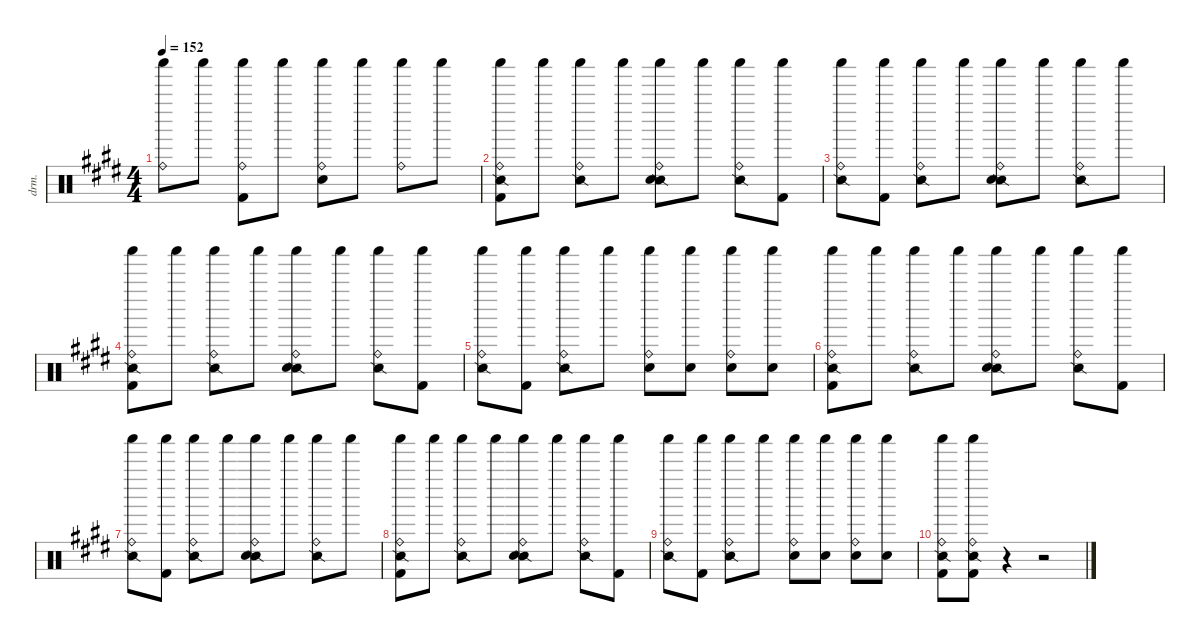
\defaultSystemsLayout 4
\hideDynamics
\bracketExtendMode nobrackets
\otherSystemsTrackNameOrientation horizontal
\track ("Drums" "drm.") {instrument percussion}
\staff {score}
\articulation defaults
\ts (4 4)
\tempo 152
\clef neutral
\ks c#minor
("Ride (bell)"{acc forcenatural} "Shaker (hit)"{acc forcenatural}).8{dy f} "Shaker (hit)"{acc forcenatural}.8 ("Ride (bell)"{acc forcenatural} "Kick (hit) 2"{acc forcenatural} "Shaker (hit)"{acc forcenatural}).8 "Shaker (hit)"{acc forcenatural}.8 ("Ride (bell)"{acc forcenatural} "Snare (hit) 2"{acc forcenatural} "Shaker (hit)"{acc forcenatural}).8 "Shaker (hit)"{acc forcenatural}.8 ("Ride (bell)"{acc forcenatural} "Shaker (hit)"{acc forcenatural}).8 "Shaker (hit)"{acc forcenatural}.8 |
("Snare (side stick) 2"{acc forcenatural} "Ride (bell)"{acc forcenatural} "Kick (hit) 2"{acc forcenatural} "Shaker (hit)"{acc forcenatural}).8 "Shaker (hit)"{acc forcenatural}.8 ("Snare (side stick) 2"{acc forcenatural} "Ride (bell)"{acc forcenatural} "Shaker (hit)"{acc forcenatural}).8 "Shaker (hit)"{acc forcenatural}.8 ("Snare (side stick) 2"{acc forcenatural} "Ride (bell)"{acc forcenatural} "Snare (hit) 2"{acc forcenatural} "Shaker (hit)"{acc forcenatural}).8 "Shaker (hit)"{acc forcenatural}.8 ("Snare (side stick) 2"{acc forcenatural} "Ride (bell)"{acc forcenatural} "Shaker (hit)"{acc forcenatural}).8 ("Kick (hit) 2"{acc forcenatural} "Shaker (hit)"{acc forcenatural}).8 |
("Snare (side stick) 2"{acc forcenatural} "Ride (bell)"{acc forcenatural} "Shaker (hit)"{acc forcenatural}).8 ("Shaker (hit)"{acc forcenatural} "Kick (hit) 2"{acc forcenatural}).8 ("Snare (side stick) 2"{acc forcenatural} "Ride (bell)"{acc forcenatural} "Shaker (hit)"{acc forcenatural}).8 "Shaker (hit)"{acc forcenatural}.8 ("Snare (side stick) 2"{acc forcenatural} "Ride (bell)"{acc forcenatural} "Snare (hit) 2"{acc forcenatural} "Shaker (hit)"{acc forcenatural}).8 "Shaker (hit)"{acc forcenatural}.8 ("Snare (side stick) 2"{acc forcenatural} "Ride (bell)"{acc forcenatural} "Shaker (hit)"{acc forcenatural}).8 "Shaker (hit)"{acc forcenatural}.8 |
("Snare (side stick) 2"{acc forcenatural} "Ride (bell)"{acc forcenatural} "Kick (hit) 2"{acc forcenatural} "Shaker (hit)"{acc forcenatural}).8 "Shaker (hit)"{acc forcenatural}.8 ("Snare (side stick) 2"{acc forcenatural} "Ride (bell)"{acc forcenatural} "Shaker (hit)"{acc forcenatural}).8 "Shaker (hit)"{acc forcenatural}.8 ("Snare (side stick) 2"{acc forcenatural} "Ride (bell)"{acc forcenatural} "Snare (hit) 2"{acc forcenatural} "Shaker (hit)"{acc forcenatural}).8 "Shaker (hit)"{acc forcenatural}.8 ("Snare (side stick) 2"{acc forcenatural} "Ride (bell)"{acc forcenatural} "Shaker (hit)"{acc forcenatural}).8 ("Kick (hit) 2"{acc forcenatural} "Shaker (hit)"{acc forcenatural}).8 |
("Snare (side stick) 2"{acc forcenatural} "Ride (bell)"{acc forcenatural} "Shaker (hit)"{acc forcenatural}).8 ("Shaker (hit)"{acc forcenatural} "Kick (hit) 2"{acc forcenatural}).8 ("Snare (side stick) 2"{acc forcenatural} "Ride (bell)"{acc forcenatural} "Shaker (hit)"{acc forcenatural}).8 "Shaker (hit)"{acc forcenatural}.8 ("Ride (bell)"{acc forcenatural} "Snare (hit) 2"{acc forcenatural} "Shaker (hit)"{acc forcenatural}).8 ("Snare (hit) 2"{acc forcenatural} "Shaker (hit)"{acc forcenatural}).8 ("Snare (hit) 2"{acc forcenatural} "Ride (bell)"{acc forcenatural} "Shaker (hit)"{acc forcenatural}).8 ("Snare (hit) 2"{acc forcenatural} "Shaker (hit)"{acc forcenatural}).8 |
("Snare (side stick) 2"{acc forcenatural} "Ride (bell)"{acc forcenatural} "Kick (hit) 2"{acc forcenatural} "Shaker (hit)"{acc forcenatural}).8 "Shaker (hit)"{acc forcenatural}.8 ("Snare (side stick) 2"{acc forcenatural} "Ride (bell)"{acc forcenatural} "Shaker (hit)"{acc forcenatural}).8 "Shaker (hit)"{acc forcenatural}.8 ("Snare (side stick) 2"{acc forcenatural} "Ride (bell)"{acc forcenatural} "Snare (hit) 2"{acc forcenatural} "Shaker (hit)"{acc forcenatural}).8 "Shaker (hit)"{acc forcenatural}.8 ("Snare (side stick) 2"{acc forcenatural} "Ride (bell)"{acc forcenatural} "Shaker (hit)"{acc forcenatural}).8 ("Kick (hit) 2"{acc forcenatural} "Shaker (hit)"{acc forcenatural}).8 |
("Snare (side stick) 2"{acc forcenatural} "Ride (bell)"{acc forcenatural} "Shaker (hit)"{acc forcenatural}).8 ("Shaker (hit)"{acc forcenatural} "Kick (hit) 2"{acc forcenatural}).8 ("Snare (side stick) 2"{acc forcenatural} "Ride (bell)"{acc forcenatural} "Shaker (hit)"{acc forcenatural}).8 "Shaker (hit)"{acc forcenatural}.8 ("Snare (side stick) 2"{acc forcenatural} "Ride (bell)"{acc forcenatural} "Snare (hit) 2"{acc forcenatural} "Shaker (hit)"{acc forcenatural}).8 "Shaker (hit)"{acc forcenatural}.8 ("Snare (side stick) 2"{acc forcenatural} "Ride (bell)"{acc forcenatural} "Shaker (hit)"{acc forcenatural}).8 "Shaker (hit)"{acc forcenatural}.8 |
("Snare (side stick) 2"{acc forcenatural} "Ride (bell)"{acc forcenatural} "Kick (hit) 2"{acc forcenatural} "Shaker (hit)"{acc forcenatural}).8 "Shaker (hit)"{acc forcenatural}.8 ("Snare (side stick) 2"{acc forcenatural} "Ride (bell)"{acc forcenatural} "Shaker (hit)"{acc forcenatural}).8 "Shaker (hit)"{acc forcenatural}.8 ("Snare (side stick) 2"{acc forcenatural} "Ride (bell)"{acc forcenatural} "Snare (hit) 2"{acc forcenatural} "Shaker (hit)"{acc forcenatural}).8 "Shaker (hit)"{acc forcenatural}.8 ("Snare (side stick) 2"{acc forcenatural} "Ride (bell)"{acc forcenatural} "Shaker (hit)"{acc forcenatural}).8 ("Kick (hit) 2"{acc forcenatural} "Shaker (hit)"{acc forcenatural}).8 |
("Snare (side stick) 2"{acc forcenatural} "Ride (bell)"{acc forcenatural} "Shaker (hit)"{acc forcenatural}).8 ("Shaker (hit)"{acc forcenatural} "Kick (hit) 2"{acc forcenatural}).8 ("Snare (side stick) 2"{acc forcenatural} "Ride (bell)"{acc forcenatural} "Shaker (hit)"{acc forcenatural}).8 "Shaker (hit)"{acc forcenatural}.8 ("Ride (bell)"{acc forcenatural} "Snare (hit) 2"{acc forcenatural} "Shaker (hit)"{acc forcenatural}).8 ("Snare (hit) 2"{acc forcenatural} "Shaker (hit)"{acc forcenatural}).8 ("Snare (hit) 2"{acc forcenatural} "Ride (bell)"{acc forcenatural} "Shaker (hit)"{acc forcenatural}).8 ("Snare (hit) 2"{acc forcenatural} "Shaker (hit)"{acc forcenatural}).8 |
("Snare (side stick) 2"{acc forcenatural} "Ride (bell)"{acc forcenatural} "Kick (hit) 2"{acc forcenatural} "Shaker (hit)"{acc forcenatural}).8 ("Snare (side stick) 2"{acc forcenatural} "Ride (bell)"{acc forcenatural} "Kick (hit) 2"{acc forcenatural} "Shaker (hit)"{acc forcenatural}).8 r.4 r.2
